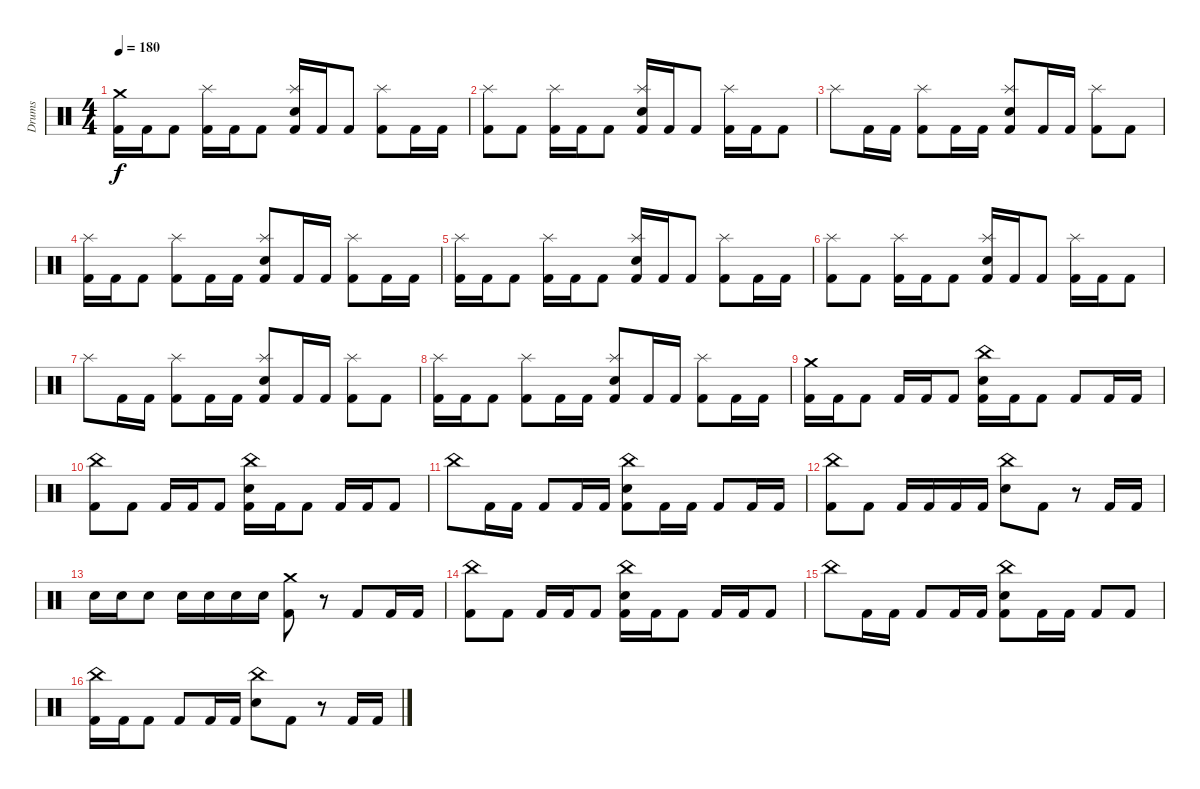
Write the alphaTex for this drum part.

\track ("Drums" "Drums") {instrument percussion}
\staff {score}
\articulation defaults
\ts (4 4)
\tempo 180
\clef neutral
\ks c
("Crash medium (hit)" "Kick (hit) 2").16{dy f} "Kick (hit) 2".16 "Kick (hit) 2".8 ("Splash (hit)" "Kick (hit) 2").16 "Kick (hit) 2".16 "Kick (hit) 2".8 ("Splash (hit)" "Electric Snare (hit)" "Kick (hit) 2").16 "Kick (hit) 2".16 "Kick (hit) 2".8 ("Splash (hit)" "Kick (hit) 2").8 "Kick (hit) 2".16 "Kick (hit) 2".16 |
("Splash (hit)" "Kick (hit) 2").8 "Kick (hit) 2".8 ("Splash (hit)" "Kick (hit) 2").16 "Kick (hit) 2".16 "Kick (hit) 2".8 ("Splash (hit)" "Electric Snare (hit)" "Kick (hit) 2").16 "Kick (hit) 2".16 "Kick (hit) 2".8 ("Splash (hit)" "Kick (hit) 2").16 "Kick (hit) 2".16 "Kick (hit) 2".8 |
"Splash (hit)".8 "Kick (hit) 2".16 "Kick (hit) 2".16 ("Splash (hit)" "Kick (hit) 2").8 "Kick (hit) 2".16 "Kick (hit) 2".16 ("Splash (hit)" "Electric Snare (hit)" "Kick (hit) 2").8 "Kick (hit) 2".16 "Kick (hit) 2".16 ("Splash (hit)" "Kick (hit) 2").8 "Kick (hit) 2".8 |
("Splash (hit)" "Kick (hit) 2").16 "Kick (hit) 2".16 "Kick (hit) 2".8 ("Splash (hit)" "Kick (hit) 2").8 "Kick (hit) 2".16 "Kick (hit) 2".16 ("Splash (hit)" "Electric Snare (hit)" "Kick (hit) 2").8 "Kick (hit) 2".16 "Kick (hit) 2".16 ("Splash (hit)" "Kick (hit) 2").8 "Kick (hit) 2".16 "Kick (hit) 2".16 |
("Splash (hit)" "Kick (hit) 2").16 "Kick (hit) 2".16 "Kick (hit) 2".8 ("Splash (hit)" "Kick (hit) 2").16 "Kick (hit) 2".16 "Kick (hit) 2".8 ("Splash (hit)" "Electric Snare (hit)" "Kick (hit) 2").16 "Kick (hit) 2".16 "Kick (hit) 2".8 ("Splash (hit)" "Kick (hit) 2").8 "Kick (hit) 2".16 "Kick (hit) 2".16 |
("Splash (hit)" "Kick (hit) 2").8 "Kick (hit) 2".8 ("Splash (hit)" "Kick (hit) 2").16 "Kick (hit) 2".16 "Kick (hit) 2".8 ("Splash (hit)" "Electric Snare (hit)" "Kick (hit) 2").16 "Kick (hit) 2".16 "Kick (hit) 2".8 ("Splash (hit)" "Kick (hit) 2").16 "Kick (hit) 2".16 "Kick (hit) 2".8 |
"Splash (hit)".8 "Kick (hit) 2".16 "Kick (hit) 2".16 ("Splash (hit)" "Kick (hit) 2").8 "Kick (hit) 2".16 "Kick (hit) 2".16 ("Splash (hit)" "Electric Snare (hit)" "Kick (hit) 2").8 "Kick (hit) 2".16 "Kick (hit) 2".16 ("Splash (hit)" "Kick (hit) 2").8 "Kick (hit) 2".8 |
("Splash (hit)" "Kick (hit) 2").16 "Kick (hit) 2".16 "Kick (hit) 2".8 ("Splash (hit)" "Kick (hit) 2").8 "Kick (hit) 2".16 "Kick (hit) 2".16 ("Splash (hit)" "Electric Snare (hit)" "Kick (hit) 2").8 "Kick (hit) 2".16 "Kick (hit) 2".16 ("Splash (hit)" "Kick (hit) 2").8 "Kick (hit) 2".16 "Kick (hit) 2".16 |
("Crash medium (hit)" "Kick (hit) 2").16 "Kick (hit) 2".16 "Kick (hit) 2".8 "Kick (hit) 2".16 "Kick (hit) 2".16 "Kick (hit) 2".8 ("China (hit)" "Electric Snare (hit)" "Kick (hit) 2").16 "Kick (hit) 2".16 "Kick (hit) 2".8 "Kick (hit) 2".8 "Kick (hit) 2".16 "Kick (hit) 2".16 |
("China (hit)" "Kick (hit) 2").8 "Kick (hit) 2".8 "Kick (hit) 2".16 "Kick (hit) 2".16 "Kick (hit) 2".8 ("China (hit)" "Electric Snare (hit)" "Kick (hit) 2").16 "Kick (hit) 2".16 "Kick (hit) 2".8 "Kick (hit) 2".16 "Kick (hit) 2".16 "Kick (hit) 2".8 |
"China (hit)".8 "Kick (hit) 2".16 "Kick (hit) 2".16 "Kick (hit) 2".8 "Kick (hit) 2".16 "Kick (hit) 2".16 ("China (hit)" "Electric Snare (hit)" "Kick (hit) 2").8 "Kick (hit) 2".16 "Kick (hit) 2".16 "Kick (hit) 2".8 "Kick (hit) 2".16 "Kick (hit) 2".16 |
("China (hit)" "Kick (hit) 2").8 "Kick (hit) 2".8 "Kick (hit) 2".16 "Kick (hit) 2".16 "Kick (hit) 2".16 "Kick (hit) 2".16 ("China (hit)" "Electric Snare (hit)").8 "Kick (hit) 2".8 r.8 "Kick (hit) 2".16 "Kick (hit) 2".16 |
"Electric Snare (hit)".16 "Electric Snare (hit)".16 "Electric Snare (hit)".8 "Electric Snare (hit)".16 "Electric Snare (hit)".16 "Electric Snare (hit)".16 "Electric Snare (hit)".16 ("Crash medium (hit)" "Kick (hit) 2").8 r.8 "Kick (hit) 2".8 "Kick (hit) 2".16 "Kick (hit) 2".16 |
("China (hit)" "Kick (hit) 2").8 "Kick (hit) 2".8 "Kick (hit) 2".16 "Kick (hit) 2".16 "Kick (hit) 2".8 ("China (hit)" "Electric Snare (hit)" "Kick (hit) 2").16 "Kick (hit) 2".16 "Kick (hit) 2".8 "Kick (hit) 2".16 "Kick (hit) 2".16 "Kick (hit) 2".8 |
"China (hit)".8 "Kick (hit) 2".16 "Kick (hit) 2".16 "Kick (hit) 2".8 "Kick (hit) 2".16 "Kick (hit) 2".16 ("China (hit)" "Electric Snare (hit)" "Kick (hit) 2").8 "Kick (hit) 2".16 "Kick (hit) 2".16 "Kick (hit) 2".8 "Kick (hit) 2".8 |
("China (hit)" "Kick (hit) 2").16 "Kick (hit) 2".16 "Kick (hit) 2".8 "Kick (hit) 2".8 "Kick (hit) 2".16 "Kick (hit) 2".16 ("China (hit)" "Electric Snare (hit)").8 "Kick (hit) 2".8 r.8 "Kick (hit) 2".16 "Kick (hit) 2".16
